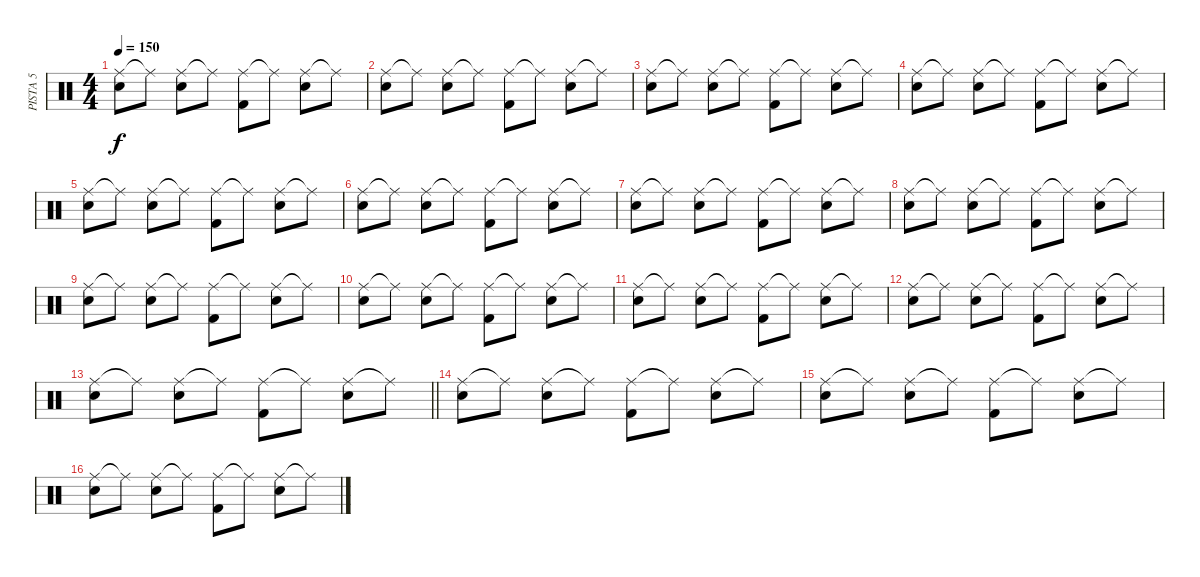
\track ("PISTA 5" "PISTA 5") {instrument percussion}
\staff {score}
\articulation defaults
\ts (4 4)
\tempo 150
\clef neutral
\ks c
("Ride (middle)" "Snare (hit)").8{dy f} "Ride (middle)"{t}.8 ("Ride (middle)" "Electric Snare (hit)").8 "Ride (middle)"{t}.8 ("Ride (middle)" "Kick (hit) 2").8 "Ride (middle)"{t}.8 ("Ride (middle)" "Electric Snare (hit)").8 "Ride (middle)"{t}.8 |
("Ride (middle)" "Snare (hit)").8 "Ride (middle)"{t}.8 ("Ride (middle)" "Electric Snare (hit)").8 "Ride (middle)"{t}.8 ("Ride (middle)" "Kick (hit) 2").8 "Ride (middle)"{t}.8 ("Ride (middle)" "Electric Snare (hit)").8 "Ride (middle)"{t}.8 |
("Ride (middle)" "Snare (hit)").8 "Ride (middle)"{t}.8 ("Ride (middle)" "Electric Snare (hit)").8 "Ride (middle)"{t}.8 ("Ride (middle)" "Kick (hit) 2").8 "Ride (middle)"{t}.8 ("Ride (middle)" "Electric Snare (hit)").8 "Ride (middle)"{t}.8 |
("Ride (middle)" "Snare (hit)").8 "Ride (middle)"{t}.8 ("Ride (middle)" "Electric Snare (hit)").8 "Ride (middle)"{t}.8 ("Ride (middle)" "Kick (hit) 2").8 "Ride (middle)"{t}.8 ("Ride (middle)" "Electric Snare (hit)").8 "Ride (middle)"{t}.8 |
("Ride (middle)" "Snare (hit)").8 "Ride (middle)"{t}.8 ("Ride (middle)" "Electric Snare (hit)").8 "Ride (middle)"{t}.8 ("Ride (middle)" "Kick (hit) 2").8 "Ride (middle)"{t}.8 ("Ride (middle)" "Electric Snare (hit)").8 "Ride (middle)"{t}.8 |
("Ride (middle)" "Snare (hit)").8 "Ride (middle)"{t}.8 ("Ride (middle)" "Electric Snare (hit)").8 "Ride (middle)"{t}.8 ("Ride (middle)" "Kick (hit) 2").8 "Ride (middle)"{t}.8 ("Ride (middle)" "Electric Snare (hit)").8 "Ride (middle)"{t}.8 |
("Ride (middle)" "Snare (hit)").8 "Ride (middle)"{t}.8 ("Ride (middle)" "Electric Snare (hit)").8 "Ride (middle)"{t}.8 ("Ride (middle)" "Kick (hit) 2").8 "Ride (middle)"{t}.8 ("Ride (middle)" "Electric Snare (hit)").8 "Ride (middle)"{t}.8 |
("Ride (middle)" "Snare (hit)").8 "Ride (middle)"{t}.8 ("Ride (middle)" "Electric Snare (hit)").8 "Ride (middle)"{t}.8 ("Ride (middle)" "Kick (hit) 2").8 "Ride (middle)"{t}.8 ("Ride (middle)" "Electric Snare (hit)").8 "Ride (middle)"{t}.8 |
("Ride (middle)" "Snare (hit)").8 "Ride (middle)"{t}.8 ("Ride (middle)" "Electric Snare (hit)").8 "Ride (middle)"{t}.8 ("Ride (middle)" "Kick (hit) 2").8 "Ride (middle)"{t}.8 ("Ride (middle)" "Electric Snare (hit)").8 "Ride (middle)"{t}.8 |
("Ride (middle)" "Snare (hit)").8 "Ride (middle)"{t}.8 ("Ride (middle)" "Electric Snare (hit)").8 "Ride (middle)"{t}.8 ("Ride (middle)" "Kick (hit) 2").8 "Ride (middle)"{t}.8 ("Ride (middle)" "Electric Snare (hit)").8 "Ride (middle)"{t}.8 |
("Ride (middle)" "Snare (hit)").8 "Ride (middle)"{t}.8 ("Ride (middle)" "Electric Snare (hit)").8 "Ride (middle)"{t}.8 ("Ride (middle)" "Kick (hit) 2").8 "Ride (middle)"{t}.8 ("Ride (middle)" "Electric Snare (hit)").8 "Ride (middle)"{t}.8 |
("Ride (middle)" "Snare (hit)").8 "Ride (middle)"{t}.8 ("Ride (middle)" "Electric Snare (hit)").8 "Ride (middle)"{t}.8 ("Ride (middle)" "Kick (hit) 2").8 "Ride (middle)"{t}.8 ("Ride (middle)" "Electric Snare (hit)").8 "Ride (middle)"{t}.8 |
\barLineRight lightlight
("Ride (middle)" "Snare (hit)").8 "Ride (middle)"{t}.8 ("Ride (middle)" "Electric Snare (hit)").8 "Ride (middle)"{t}.8 ("Ride (middle)" "Kick (hit) 2").8 "Ride (middle)"{t}.8 ("Ride (middle)" "Electric Snare (hit)").8 "Ride (middle)"{t}.8 |
("Ride (middle)" "Snare (hit)").8 "Ride (middle)"{t}.8 ("Ride (middle)" "Electric Snare (hit)").8 "Ride (middle)"{t}.8 ("Ride (middle)" "Kick (hit) 2").8 "Ride (middle)"{t}.8 ("Ride (middle)" "Electric Snare (hit)").8 "Ride (middle)"{t}.8 |
("Ride (middle)" "Snare (hit)").8 "Ride (middle)"{t}.8 ("Ride (middle)" "Electric Snare (hit)").8 "Ride (middle)"{t}.8 ("Ride (middle)" "Kick (hit) 2").8 "Ride (middle)"{t}.8 ("Ride (middle)" "Electric Snare (hit)").8 "Ride (middle)"{t}.8 |
("Ride (middle)" "Snare (hit)").8 "Ride (middle)"{t}.8 ("Ride (middle)" "Electric Snare (hit)").8 "Ride (middle)"{t}.8 ("Ride (middle)" "Kick (hit) 2").8 "Ride (middle)"{t}.8 ("Ride (middle)" "Electric Snare (hit)").8 "Ride (middle)"{t}.8
